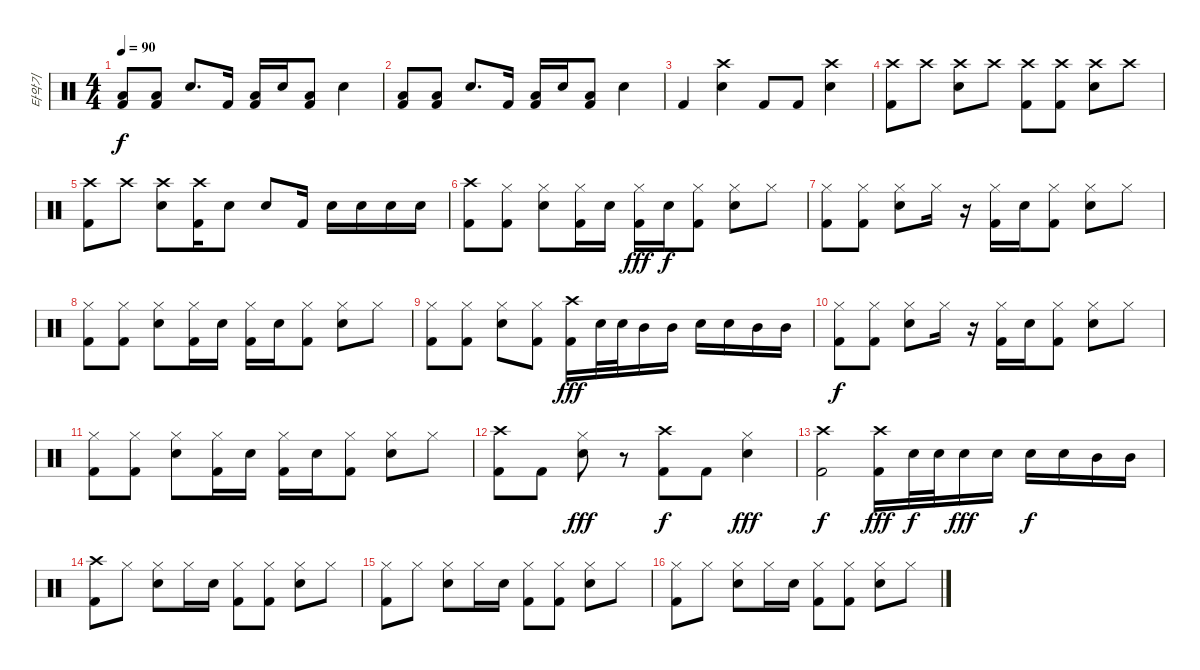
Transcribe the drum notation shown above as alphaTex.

\track ("타악기" "타악기") {instrument percussion}
\staff {score}
\articulation defaults
\ts (4 4)
\tempo 90
\clef neutral
\ks c
("Kick (hit) 2" "Low Floor Tom (hit)").8{dy f} ("Kick (hit) 2" "Low Floor Tom (hit)").8 "Electric Snare (hit)".8{d} "Kick (hit) 2".16 ("Kick (hit) 2" "Low Floor Tom (hit)").16 "Electric Snare (hit)".16 ("Kick (hit) 2" "Low Floor Tom (hit)").8 "Electric Snare (hit)".4 |
("Kick (hit) 2" "Low Floor Tom (hit)").8 ("Kick (hit) 2" "Low Floor Tom (hit)").8 "Electric Snare (hit)".8{d} "Kick (hit) 2".16 ("Kick (hit) 2" "Low Floor Tom (hit)").16 "Electric Snare (hit)".16 ("Kick (hit) 2" "Low Floor Tom (hit)").8 "Electric Snare (hit)".4 |
"Kick (hit) 2".4 ("Crash high (hit)" "Electric Snare (hit)").4 "Kick (hit) 2".8 "Kick (hit) 2".8 ("Crash high (hit)" "Electric Snare (hit)").4 |
("Crash high (hit)" "Kick (hit) 2").8 "Crash high (hit)".8 ("Crash high (hit)" "Electric Snare (hit)").8 "Crash high (hit)".8 ("Crash high (hit)" "Kick (hit) 2").8 ("Crash high (hit)" "Kick (hit) 2").8 ("Crash high (hit)" "Electric Snare (hit)").8 "Crash high (hit)".8 |
("Crash high (hit)" "Kick (hit) 2").8 "Crash high (hit)".8 ("Crash high (hit)" "Electric Snare (hit)").8 ("Crash high (hit)" "Kick (hit) 2").16 "Electric Snare (hit)".8 "Electric Snare (hit)".8 "Kick (hit) 2".16 "Electric Snare (hit)".16 "Electric Snare (hit)".16 "Electric Snare (hit)".16 "Electric Snare (hit)".16 |
("Crash high (hit)" "Kick (hit) 2").8 ("Hi-Hat (closed)" "Kick (hit) 2").8 ("Hi-Hat (closed)" "Electric Snare (hit)").8 ("Hi-Hat (closed)" "Kick (hit) 2").16 "Electric Snare (hit)".16 ("Hi-Hat (closed)" "Kick (hit) 2").16{dy fff} "Electric Snare (hit)".16{dy f} ("Hi-Hat (closed)" "Kick (hit) 2").8 ("Hi-Hat (closed)" "Electric Snare (hit)").8 "Hi-Hat (closed)".8 |
("Hi-Hat (closed)" "Kick (hit) 2").8 ("Hi-Hat (closed)" "Kick (hit) 2").8 ("Hi-Hat (closed)" "Electric Snare (hit)").8 "Hi-Hat (closed)".16 r.16 ("Hi-Hat (closed)" "Kick (hit) 2").16 "Electric Snare (hit)".16 ("Hi-Hat (closed)" "Kick (hit) 2").8 ("Hi-Hat (closed)" "Electric Snare (hit)").8 "Hi-Hat (closed)".8 |
("Hi-Hat (closed)" "Kick (hit) 2").8 ("Hi-Hat (closed)" "Kick (hit) 2").8 ("Hi-Hat (closed)" "Electric Snare (hit)").8 ("Hi-Hat (closed)" "Kick (hit) 2").16 "Electric Snare (hit)".16 ("Hi-Hat (closed)" "Kick (hit) 2").16 "Electric Snare (hit)".16 ("Hi-Hat (closed)" "Kick (hit) 2").8 ("Hi-Hat (closed)" "Electric Snare (hit)").8 "Hi-Hat (closed)".8 |
("Kick (hit) 2" "Hi-Hat (closed)").8 ("Hi-Hat (closed)" "Kick (hit) 2").8 ("Hi-Hat (closed)" "Electric Snare (hit)").8 ("Hi-Hat (closed)" "Kick (hit) 2").8 ("Crash high (hit)" "Kick (hit) 2").16{dy fff} "Electric Snare (hit)".32 "Electric Snare (hit)".32 "Mid Tom (hit)".16 "Mid Tom (hit)".16 "Electric Snare (hit)".16 "Electric Snare (hit)".16 "Mid Tom (hit)".16 "Mid Tom (hit)".16 |
("Hi-Hat (closed)" "Kick (hit) 2").8{dy f} ("Hi-Hat (closed)" "Kick (hit) 2").8 ("Hi-Hat (closed)" "Electric Snare (hit)").8 "Hi-Hat (closed)".16 r.16 ("Hi-Hat (closed)" "Kick (hit) 2").16 "Electric Snare (hit)".16 ("Hi-Hat (closed)" "Kick (hit) 2").8 ("Hi-Hat (closed)" "Electric Snare (hit)").8 "Hi-Hat (closed)".8 |
("Hi-Hat (closed)" "Kick (hit) 2").8 ("Hi-Hat (closed)" "Kick (hit) 2").8 ("Hi-Hat (closed)" "Electric Snare (hit)").8 ("Hi-Hat (closed)" "Kick (hit) 2").16 "Electric Snare (hit)".16 ("Hi-Hat (closed)" "Kick (hit) 2").16 "Electric Snare (hit)".16 ("Hi-Hat (closed)" "Kick (hit) 2").8 ("Hi-Hat (closed)" "Electric Snare (hit)").8 "Hi-Hat (closed)".8 |
("Crash high (hit)" "Kick (hit) 2").8 "Kick (hit) 2".8 ("Hi-Hat (closed)" "Electric Snare (hit)").8{dy fff} r.8 ("Crash high (hit)" "Kick (hit) 2").8{dy f} "Kick (hit) 2".8 ("Hi-Hat (closed)" "Electric Snare (hit)").4{dy fff} |
("Crash high (hit)" "Kick (hit) 2").2{dy f} ("Crash high (hit)" "Kick (hit) 2").16{dy fff} "Electric Snare (hit)".32{dy f} "Electric Snare (hit)".32 "Electric Snare (hit)".16{dy fff} "Electric Snare (hit)".16 "Electric Snare (hit)".16{dy f} "Electric Snare (hit)".16 "Mid Tom (hit)".16 "Mid Tom (hit)".16 |
("Crash high (hit)" "Kick (hit) 2").8 "Hi-Hat (closed)".8 ("Hi-Hat (closed)" "Electric Snare (hit)").8 "Hi-Hat (closed)".16 "Electric Snare (hit)".16 ("Hi-Hat (closed)" "Kick (hit) 2").8 ("Hi-Hat (closed)" "Kick (hit) 2").8 ("Hi-Hat (closed)" "Electric Snare (hit)").8 "Hi-Hat (closed)".8 |
("Kick (hit) 2" "Hi-Hat (closed)").8 "Hi-Hat (closed)".8 ("Hi-Hat (closed)" "Electric Snare (hit)").8 "Hi-Hat (closed)".16 "Electric Snare (hit)".16 ("Hi-Hat (closed)" "Kick (hit) 2").8 ("Hi-Hat (closed)" "Kick (hit) 2").8 ("Hi-Hat (closed)" "Electric Snare (hit)").8 "Hi-Hat (closed)".8 |
("Hi-Hat (closed)" "Kick (hit) 2").8 "Hi-Hat (closed)".8 ("Hi-Hat (closed)" "Electric Snare (hit)").8 "Hi-Hat (closed)".16 "Electric Snare (hit)".16 ("Hi-Hat (closed)" "Kick (hit) 2").8 ("Hi-Hat (closed)" "Kick (hit) 2").8 ("Hi-Hat (closed)" "Electric Snare (hit)").8 "Hi-Hat (closed)".8
